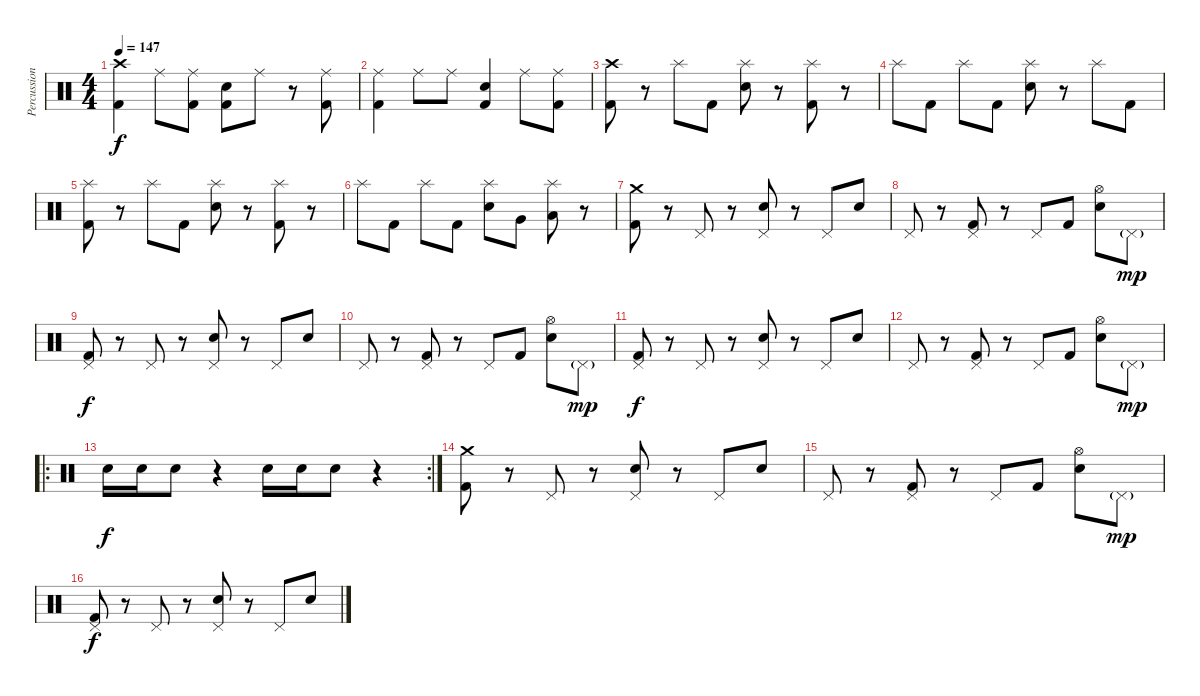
\track ("Percussion" "Percussion") {instrument percussion}
\staff {score}
\articulation defaults
\ts (4 4)
\tempo 147
\clef neutral
\ks c
("Crash high (hit)" "Kick (hit) 2").4{dy f} "Ride (middle)".8 ("Ride (middle)" "Kick (hit) 2").8 ("Electric Snare (hit)" "Kick (hit) 2").8 "Ride (middle)".8 r.8 ("Ride (middle)" "Kick (hit) 2").8 |
("Ride (middle)" "Kick (hit) 2").4 "Ride (middle)".8 "Ride (middle)".8 ("Electric Snare (hit)" "Kick (hit) 2").4 "Ride (middle)".8 ("Ride (middle)" "Kick (hit) 2").8 |
("Crash high (hit)" "Kick (hit) 2").8 r.8 "Splash (hit)".8 "Kick (hit) 2".8 ("Splash (hit)" "Electric Snare (hit)").8 r.8 ("Splash (hit)" "Kick (hit) 2").8 r.8 |
"Splash (hit)".8 "Kick (hit) 2".8 "Splash (hit)".8 "Kick (hit) 2".8 ("Splash (hit)" "Electric Snare (hit)").8 r.8 "Splash (hit)".8 "Kick (hit) 2".8 |
("Splash (hit)" "Kick (hit) 2").8 r.8 "Splash (hit)".8 "Kick (hit) 2".8 ("Splash (hit)" "Electric Snare (hit)").8 r.8 ("Splash (hit)" "Kick (hit) 2").8 r.8 |
"Splash (hit)".8 "Kick (hit) 2".8 "Splash (hit)".8 "Kick (hit) 2".8 ("Splash (hit)" "Electric Snare (hit)").8 "Very Low Tom (hit)".8 ("Splash (hit)" "Low Floor Tom (hit)").8 r.8 |
("Crash medium (hit)" "Kick (hit) 2").8 r.8 "Pedal Hi-Hat (hit)".8 r.8 ("Pedal Hi-Hat (hit)" "Electric Snare (hit)").8 r.8 "Pedal Hi-Hat (hit)".8 "Electric Snare (hit)".8 |
"Pedal Hi-Hat (hit)".8 r.8 ("Pedal Hi-Hat (hit)" "Kick (hit) 2").8 r.8 "Pedal Hi-Hat (hit)".8 "Kick (hit) 2".8 ("Hi-Hat (open)" "Electric Snare (hit)").8 "Pedal Hi-Hat (hit)"{g}.8{dy mp} |
("Pedal Hi-Hat (hit)" "Kick (hit) 2").8{dy f} r.8 "Pedal Hi-Hat (hit)".8 r.8 ("Pedal Hi-Hat (hit)" "Electric Snare (hit)").8 r.8 "Pedal Hi-Hat (hit)".8 "Electric Snare (hit)".8 |
"Pedal Hi-Hat (hit)".8 r.8 ("Pedal Hi-Hat (hit)" "Kick (hit) 2").8 r.8 "Pedal Hi-Hat (hit)".8 "Kick (hit) 2".8 ("Hi-Hat (open)" "Electric Snare (hit)").8 "Pedal Hi-Hat (hit)"{g}.8{dy mp} |
("Pedal Hi-Hat (hit)" "Kick (hit) 2").8{dy f} r.8 "Pedal Hi-Hat (hit)".8 r.8 ("Pedal Hi-Hat (hit)" "Electric Snare (hit)").8 r.8 "Pedal Hi-Hat (hit)".8 "Electric Snare (hit)".8 |
"Pedal Hi-Hat (hit)".8 r.8 ("Pedal Hi-Hat (hit)" "Kick (hit) 2").8 r.8 "Pedal Hi-Hat (hit)".8 "Kick (hit) 2".8 ("Hi-Hat (open)" "Electric Snare (hit)").8 "Pedal Hi-Hat (hit)"{g}.8{dy mp} |
\ro
\rc 2 "Electric Snare (hit)".16{dy f} "Electric Snare (hit)".16 "Electric Snare (hit)".8
r.4 "Electric Snare (hit)".16 "Electric Snare (hit)".16 "Electric Snare (hit)".8 r.4 |
("Crash medium (hit)" "Kick (hit) 2").8 r.8 "Pedal Hi-Hat (hit)".8 r.8 ("Pedal Hi-Hat (hit)" "Electric Snare (hit)").8 r.8 "Pedal Hi-Hat (hit)".8 "Electric Snare (hit)".8 |
"Pedal Hi-Hat (hit)".8 r.8 ("Pedal Hi-Hat (hit)" "Kick (hit) 2").8 r.8 "Pedal Hi-Hat (hit)".8 "Kick (hit) 2".8 ("Hi-Hat (open)" "Electric Snare (hit)").8 "Pedal Hi-Hat (hit)"{g}.8{dy mp} |
("Pedal Hi-Hat (hit)" "Kick (hit) 2").8{dy f} r.8 "Pedal Hi-Hat (hit)".8 r.8 ("Pedal Hi-Hat (hit)" "Electric Snare (hit)").8 r.8 "Pedal Hi-Hat (hit)".8 "Electric Snare (hit)".8
